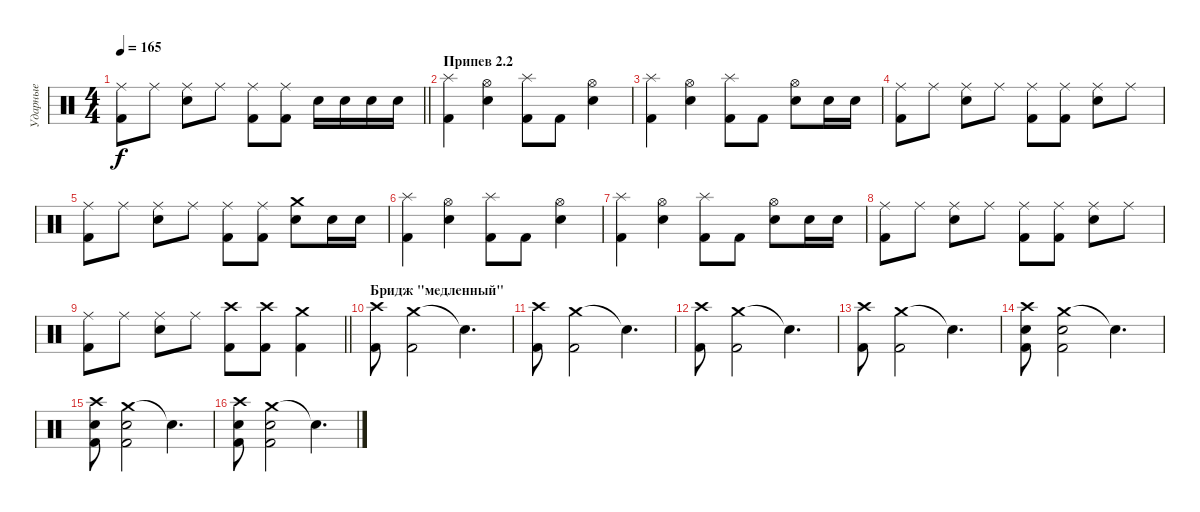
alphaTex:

\track ("Ударные" "Ударные") {instrument percussion}
\staff {score}
\articulation defaults
\ts (4 4)
\tempo 165
\clef neutral
\barLineRight lightlight
\ks c
("Ride (middle)" "Kick (hit) 2").8{dy f} "Ride (middle)".8 ("Ride (middle)" "Electric Snare (hit)").8 "Ride (middle)".8 ("Ride (middle)" "Kick (hit) 2").8 ("Ride (middle)" "Kick (hit) 2").8 "Electric Snare (hit)".16 "Electric Snare (hit)".16 "Electric Snare (hit)".16 "Electric Snare (hit)".16 |
\section ("" "Припев 2.2")
("Splash (hit)" "Kick (hit) 2").4 ("Hi-Hat (open)" "Electric Snare (hit)").4 ("Splash (hit)" "Kick (hit) 2").8 "Kick (hit) 2".8 ("Hi-Hat (open)" "Electric Snare (hit)").4 |
("Splash (hit)" "Kick (hit) 2").4 ("Hi-Hat (open)" "Electric Snare (hit)").4 ("Splash (hit)" "Kick (hit) 2").8 "Kick (hit) 2".8 ("Hi-Hat (open)" "Electric Snare (hit)").8 "Electric Snare (hit)".16 "Electric Snare (hit)".16 |
("Ride (middle)" "Kick (hit) 2").8 "Ride (middle)".8 ("Ride (middle)" "Electric Snare (hit)").8 "Ride (middle)".8 ("Ride (middle)" "Kick (hit) 2").8 ("Ride (middle)" "Kick (hit) 2").8 ("Ride (middle)" "Electric Snare (hit)").8 "Ride (middle)".8 |
("Ride (middle)" "Kick (hit) 2").8 "Ride (middle)".8 ("Ride (middle)" "Electric Snare (hit)").8 "Ride (middle)".8 ("Ride (middle)" "Kick (hit) 2").8 ("Ride (middle)" "Kick (hit) 2").8 ("Crash medium (hit)" "Electric Snare (hit)").8 "Electric Snare (hit)".16 "Electric Snare (hit)".16 |
("Splash (hit)" "Kick (hit) 2").4 ("Hi-Hat (open)" "Electric Snare (hit)").4 ("Splash (hit)" "Kick (hit) 2").8 "Kick (hit) 2".8 ("Hi-Hat (open)" "Electric Snare (hit)").4 |
("Splash (hit)" "Kick (hit) 2").4 ("Hi-Hat (open)" "Electric Snare (hit)").4 ("Splash (hit)" "Kick (hit) 2").8 "Kick (hit) 2".8 ("Hi-Hat (open)" "Electric Snare (hit)").8 "Electric Snare (hit)".16 "Electric Snare (hit)".16 |
("Ride (middle)" "Kick (hit) 2").8 "Ride (middle)".8 ("Ride (middle)" "Electric Snare (hit)").8 "Ride (middle)".8 ("Ride (middle)" "Kick (hit) 2").8 ("Ride (middle)" "Kick (hit) 2").8 ("Ride (middle)" "Electric Snare (hit)").8 "Ride (middle)".8 |
\barLineRight lightlight
("Ride (middle)" "Kick (hit) 2").8 "Ride (middle)".8 ("Ride (middle)" "Electric Snare (hit)").8 "Ride (middle)".8 ("Crash high (hit)" "Kick (hit) 2").8 ("Crash high (hit)" "Kick (hit) 2").8 ("Crash medium (hit)" "Kick (hit) 2").4 |
\section ("" "Бридж \"медленный\"")
("Crash high (hit)" "Kick (hit) 2").8 ("Crash medium (hit)" "Kick (hit) 2").2 "Snare (hit)"{t}.4{d} |
("Crash high (hit)" "Kick (hit) 2").8 ("Crash medium (hit)" "Kick (hit) 2").2 "Snare (hit)"{t}.4{d} |
("Crash high (hit)" "Kick (hit) 2").8 ("Crash medium (hit)" "Kick (hit) 2").2 "Snare (hit)"{t}.4{d} |
("Crash high (hit)" "Kick (hit) 2").8 ("Crash medium (hit)" "Kick (hit) 2").2 "Snare (hit)"{t}.4{d} |
("Crash high (hit)" "Electric Snare (hit)" "Kick (hit) 2").8 ("Crash medium (hit)" "Electric Snare (hit)" "Kick (hit) 2").2 "Snare (hit)"{t}.4{d} |
("Crash high (hit)" "Electric Snare (hit)" "Kick (hit) 2").8 ("Crash medium (hit)" "Electric Snare (hit)" "Kick (hit) 2").2 "Snare (hit)"{t}.4{d} |
("Crash high (hit)" "Electric Snare (hit)" "Kick (hit) 2").8 ("Crash medium (hit)" "Electric Snare (hit)" "Kick (hit) 2").2 "Snare (hit)"{t}.4{d}
